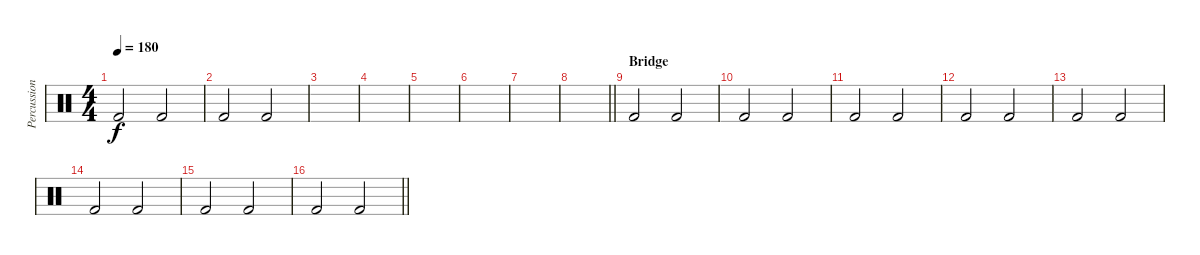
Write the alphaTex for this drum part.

\track ("Percussion" "Percussion") {instrument percussion}
\staff {score}
\articulation defaults
\ts (4 4)
\tempo 180
\clef neutral
\ks c "Kick (hit) 2".2{dy f} "Kick (hit) 2".2
|
"Kick (hit) 2".2 "Kick (hit) 2".2 |
|
|
|
|
|
\barLineRight lightlight
|
\section ("" "Bridge")
"Kick (hit) 2".2 "Kick (hit) 2".2 |
"Kick (hit) 2".2 "Kick (hit) 2".2 |
"Kick (hit) 2".2 "Kick (hit) 2".2 |
"Kick (hit) 2".2 "Kick (hit) 2".2 |
"Kick (hit) 2".2 "Kick (hit) 2".2 |
"Kick (hit) 2".2 "Kick (hit) 2".2 |
"Kick (hit) 2".2 "Kick (hit) 2".2 |
\barLineRight lightlight "Kick (hit) 2".2 "Kick (hit) 2".2
